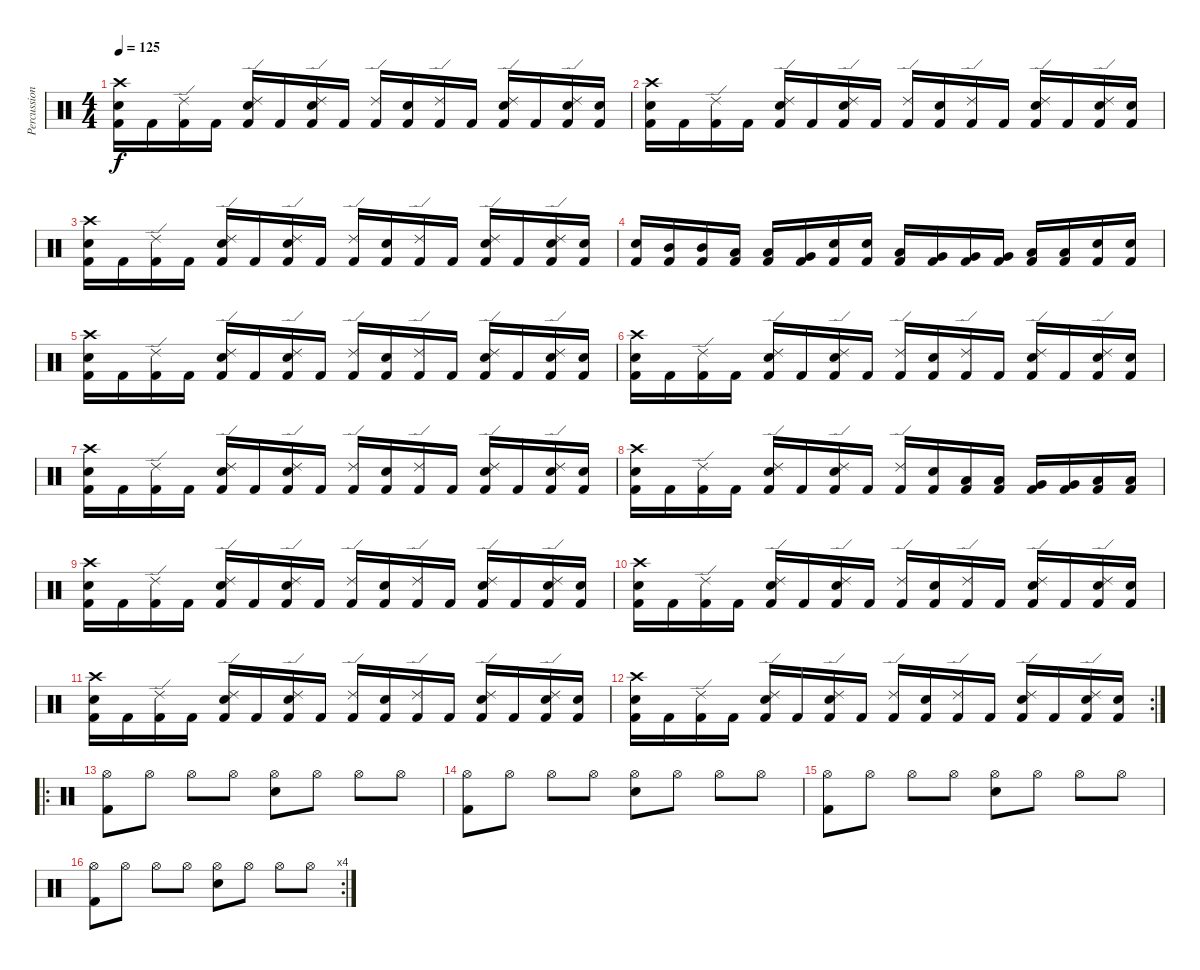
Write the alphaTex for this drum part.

\track ("Percussion" "Percussion") {instrument percussion}
\staff {score}
\articulation defaults
\ts (4 4)
\tempo 125
\clef neutral
\ks c
("Crash high (hit)" "Electric Snare (hit)" "Kick (hit) 2").16{dy f} "Kick (hit) 2".16 ("Ride (edge) 2" "Kick (hit) 2").16 "Kick (hit) 2".16 ("Ride (edge) 2" "Electric Snare (hit)" "Kick (hit) 2").16 "Kick (hit) 2".16 ("Ride (edge) 2" "Electric Snare (hit)" "Kick (hit) 2").16 "Kick (hit) 2".16 ("Ride (edge) 2" "Kick (hit) 2").16 ("Electric Snare (hit)" "Kick (hit) 2").16 ("Ride (edge) 2" "Kick (hit) 2").16 "Kick (hit) 2".16 ("Ride (edge) 2" "Electric Snare (hit)" "Kick (hit) 2").16 "Kick (hit) 2".16 ("Ride (edge) 2" "Electric Snare (hit)" "Kick (hit) 2").16 ("Electric Snare (hit)" "Kick (hit) 2").16 |
("Crash high (hit)" "Electric Snare (hit)" "Kick (hit) 2").16 "Kick (hit) 2".16 ("Ride (edge) 2" "Kick (hit) 2").16 "Kick (hit) 2".16 ("Ride (edge) 2" "Electric Snare (hit)" "Kick (hit) 2").16 "Kick (hit) 2".16 ("Ride (edge) 2" "Electric Snare (hit)" "Kick (hit) 2").16 "Kick (hit) 2".16 ("Ride (edge) 2" "Kick (hit) 2").16 ("Electric Snare (hit)" "Kick (hit) 2").16 ("Ride (edge) 2" "Kick (hit) 2").16 "Kick (hit) 2".16 ("Ride (edge) 2" "Electric Snare (hit)" "Kick (hit) 2").16 "Kick (hit) 2".16 ("Ride (edge) 2" "Electric Snare (hit)" "Kick (hit) 2").16 ("Electric Snare (hit)" "Kick (hit) 2").16 |
("Crash high (hit)" "Electric Snare (hit)" "Kick (hit) 2").16 "Kick (hit) 2".16 ("Ride (edge) 2" "Kick (hit) 2").16 "Kick (hit) 2".16 ("Ride (edge) 2" "Electric Snare (hit)" "Kick (hit) 2").16 "Kick (hit) 2".16 ("Ride (edge) 2" "Electric Snare (hit)" "Kick (hit) 2").16 "Kick (hit) 2".16 ("Ride (edge) 2" "Kick (hit) 2").16 ("Electric Snare (hit)" "Kick (hit) 2").16 ("Ride (edge) 2" "Kick (hit) 2").16 "Kick (hit) 2".16 ("Ride (edge) 2" "Electric Snare (hit)" "Kick (hit) 2").16 "Kick (hit) 2".16 ("Ride (edge) 2" "Electric Snare (hit)" "Kick (hit) 2").16 ("Electric Snare (hit)" "Kick (hit) 2").16 |
("Electric Snare (hit)" "Kick (hit) 2").16 ("Mid Tom (hit)" "Kick (hit) 2").16 ("Mid Tom (hit)" "Kick (hit) 2").16 ("Low Tom (hit)" "Kick (hit) 2").16 ("Low Tom (hit)" "Kick (hit) 2").16 ("Very Low Tom (hit)" "Kick (hit) 2").16 ("Electric Snare (hit)" "Kick (hit) 2").16 ("Electric Snare (hit)" "Kick (hit) 2").16 ("Low Tom (hit)" "Kick (hit) 2").16 ("Very Low Tom (hit)" "Kick (hit) 2").16 ("Very Low Tom (hit)" "Kick (hit) 2").16 ("Very Low Tom (hit)" "Kick (hit) 2").16 ("Low Floor Tom (hit)" "Kick (hit) 2").16 ("Low Floor Tom (hit)" "Kick (hit) 2").16 ("Electric Snare (hit)" "Kick (hit) 2").16 ("Electric Snare (hit)" "Kick (hit) 2").16 |
("Crash high (hit)" "Electric Snare (hit)" "Kick (hit) 2").16 "Kick (hit) 2".16 ("Ride (edge) 2" "Kick (hit) 2").16 "Kick (hit) 2".16 ("Ride (edge) 2" "Electric Snare (hit)" "Kick (hit) 2").16 "Kick (hit) 2".16 ("Ride (edge) 2" "Electric Snare (hit)" "Kick (hit) 2").16 "Kick (hit) 2".16 ("Ride (edge) 2" "Kick (hit) 2").16 ("Electric Snare (hit)" "Kick (hit) 2").16 ("Ride (edge) 2" "Kick (hit) 2").16 "Kick (hit) 2".16 ("Ride (edge) 2" "Electric Snare (hit)" "Kick (hit) 2").16 "Kick (hit) 2".16 ("Ride (edge) 2" "Electric Snare (hit)" "Kick (hit) 2").16 ("Electric Snare (hit)" "Kick (hit) 2").16 |
("Crash high (hit)" "Electric Snare (hit)" "Kick (hit) 2").16 "Kick (hit) 2".16 ("Ride (edge) 2" "Kick (hit) 2").16 "Kick (hit) 2".16 ("Ride (edge) 2" "Electric Snare (hit)" "Kick (hit) 2").16 "Kick (hit) 2".16 ("Ride (edge) 2" "Electric Snare (hit)" "Kick (hit) 2").16 "Kick (hit) 2".16 ("Ride (edge) 2" "Kick (hit) 2").16 ("Electric Snare (hit)" "Kick (hit) 2").16 ("Ride (edge) 2" "Kick (hit) 2").16 "Kick (hit) 2".16 ("Ride (edge) 2" "Electric Snare (hit)" "Kick (hit) 2").16 "Kick (hit) 2".16 ("Ride (edge) 2" "Electric Snare (hit)" "Kick (hit) 2").16 ("Electric Snare (hit)" "Kick (hit) 2").16 |
("Crash high (hit)" "Electric Snare (hit)" "Kick (hit) 2").16 "Kick (hit) 2".16 ("Ride (edge) 2" "Kick (hit) 2").16 "Kick (hit) 2".16 ("Ride (edge) 2" "Electric Snare (hit)" "Kick (hit) 2").16 "Kick (hit) 2".16 ("Ride (edge) 2" "Electric Snare (hit)" "Kick (hit) 2").16 "Kick (hit) 2".16 ("Ride (edge) 2" "Kick (hit) 2").16 ("Electric Snare (hit)" "Kick (hit) 2").16 ("Ride (edge) 2" "Kick (hit) 2").16 "Kick (hit) 2".16 ("Ride (edge) 2" "Electric Snare (hit)" "Kick (hit) 2").16 "Kick (hit) 2".16 ("Ride (edge) 2" "Electric Snare (hit)" "Kick (hit) 2").16 ("Electric Snare (hit)" "Kick (hit) 2").16 |
("Crash high (hit)" "Electric Snare (hit)" "Kick (hit) 2").16 "Kick (hit) 2".16 ("Ride (edge) 2" "Kick (hit) 2").16 "Kick (hit) 2".16 ("Ride (edge) 2" "Electric Snare (hit)" "Kick (hit) 2").16 "Kick (hit) 2".16 ("Ride (edge) 2" "Electric Snare (hit)" "Kick (hit) 2").16 "Kick (hit) 2".16 ("Ride (edge) 2" "Kick (hit) 2").16 ("Electric Snare (hit)" "Kick (hit) 2").16 ("Low Tom (hit)" "Kick (hit) 2").16 ("Low Tom (hit)" "Kick (hit) 2").16 ("Very Low Tom (hit)" "Kick (hit) 2").16 ("Very Low Tom (hit)" "Kick (hit) 2").16 ("Low Floor Tom (hit)" "Kick (hit) 2").16 ("Low Floor Tom (hit)" "Kick (hit) 2").16 |
("Crash high (hit)" "Electric Snare (hit)" "Kick (hit) 2").16 "Kick (hit) 2".16 ("Ride (edge) 2" "Kick (hit) 2").16 "Kick (hit) 2".16 ("Ride (edge) 2" "Electric Snare (hit)" "Kick (hit) 2").16 "Kick (hit) 2".16 ("Ride (edge) 2" "Electric Snare (hit)" "Kick (hit) 2").16 "Kick (hit) 2".16 ("Ride (edge) 2" "Kick (hit) 2").16 ("Electric Snare (hit)" "Kick (hit) 2").16 ("Ride (edge) 2" "Kick (hit) 2").16 "Kick (hit) 2".16 ("Ride (edge) 2" "Electric Snare (hit)" "Kick (hit) 2").16 "Kick (hit) 2".16 ("Ride (edge) 2" "Electric Snare (hit)" "Kick (hit) 2").16 ("Electric Snare (hit)" "Kick (hit) 2").16 |
("Crash high (hit)" "Electric Snare (hit)" "Kick (hit) 2").16 "Kick (hit) 2".16 ("Ride (edge) 2" "Kick (hit) 2").16 "Kick (hit) 2".16 ("Ride (edge) 2" "Electric Snare (hit)" "Kick (hit) 2").16 "Kick (hit) 2".16 ("Ride (edge) 2" "Electric Snare (hit)" "Kick (hit) 2").16 "Kick (hit) 2".16 ("Ride (edge) 2" "Kick (hit) 2").16 ("Electric Snare (hit)" "Kick (hit) 2").16 ("Ride (edge) 2" "Kick (hit) 2").16 "Kick (hit) 2".16 ("Ride (edge) 2" "Electric Snare (hit)" "Kick (hit) 2").16 "Kick (hit) 2".16 ("Ride (edge) 2" "Electric Snare (hit)" "Kick (hit) 2").16 ("Electric Snare (hit)" "Kick (hit) 2").16 |
("Crash high (hit)" "Electric Snare (hit)" "Kick (hit) 2").16 "Kick (hit) 2".16 ("Ride (edge) 2" "Kick (hit) 2").16 "Kick (hit) 2".16 ("Ride (edge) 2" "Electric Snare (hit)" "Kick (hit) 2").16 "Kick (hit) 2".16 ("Ride (edge) 2" "Electric Snare (hit)" "Kick (hit) 2").16 "Kick (hit) 2".16 ("Ride (edge) 2" "Kick (hit) 2").16 ("Electric Snare (hit)" "Kick (hit) 2").16 ("Ride (edge) 2" "Kick (hit) 2").16 "Kick (hit) 2".16 ("Ride (edge) 2" "Electric Snare (hit)" "Kick (hit) 2").16 "Kick (hit) 2".16 ("Ride (edge) 2" "Electric Snare (hit)" "Kick (hit) 2").16 ("Electric Snare (hit)" "Kick (hit) 2").16 |
\rc 2
("Crash high (hit)" "Electric Snare (hit)" "Kick (hit) 2").16 "Kick (hit) 2".16 ("Ride (edge) 2" "Kick (hit) 2").16 "Kick (hit) 2".16 ("Ride (edge) 2" "Electric Snare (hit)" "Kick (hit) 2").16 "Kick (hit) 2".16 ("Ride (edge) 2" "Electric Snare (hit)" "Kick (hit) 2").16 "Kick (hit) 2".16 ("Ride (edge) 2" "Kick (hit) 2").16 ("Electric Snare (hit)" "Kick (hit) 2").16 ("Ride (edge) 2" "Kick (hit) 2").16 "Kick (hit) 2".16 ("Ride (edge) 2" "Electric Snare (hit)" "Kick (hit) 2").16 "Kick (hit) 2".16 ("Ride (edge) 2" "Electric Snare (hit)" "Kick (hit) 2").16 ("Electric Snare (hit)" "Kick (hit) 2").16 |
\ro
("Hi-Hat (open)" "Kick (hit) 2").8 "Hi-Hat (open)".8 "Hi-Hat (open)".8 "Hi-Hat (open)".8 ("Hi-Hat (open)" "Electric Snare (hit)").8 "Hi-Hat (open)".8 "Hi-Hat (open)".8 "Hi-Hat (open)".8 |
("Hi-Hat (open)" "Kick (hit) 2").8 "Hi-Hat (open)".8 "Hi-Hat (open)".8 "Hi-Hat (open)".8 ("Hi-Hat (open)" "Electric Snare (hit)").8 "Hi-Hat (open)".8 "Hi-Hat (open)".8 "Hi-Hat (open)".8 |
("Hi-Hat (open)" "Kick (hit) 2").8 "Hi-Hat (open)".8 "Hi-Hat (open)".8 "Hi-Hat (open)".8 ("Hi-Hat (open)" "Electric Snare (hit)").8 "Hi-Hat (open)".8 "Hi-Hat (open)".8 "Hi-Hat (open)".8 |
\rc 4
("Hi-Hat (open)" "Kick (hit) 2").8 "Hi-Hat (open)".8 "Hi-Hat (open)".8 "Hi-Hat (open)".8 ("Hi-Hat (open)" "Electric Snare (hit)").8 "Hi-Hat (open)".8 "Hi-Hat (open)".8 "Hi-Hat (open)".8
